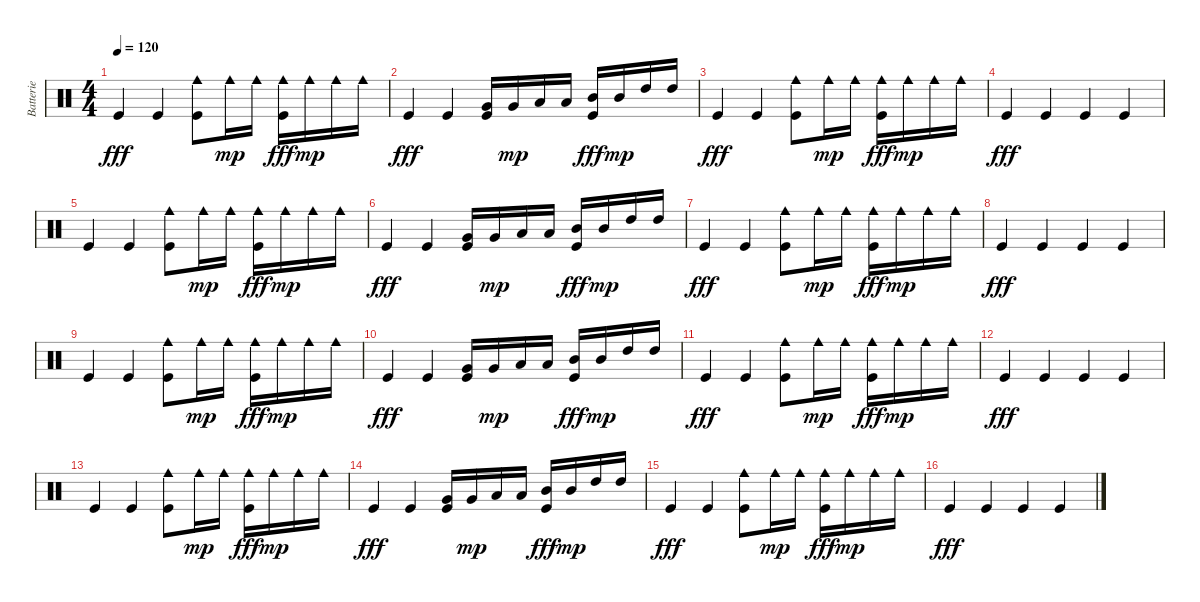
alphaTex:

\track ("Batterie" "Batterie") {instrument percussion}
\staff {score}
\articulation defaults
\ts (4 4)
\tempo 120
\clef neutral
\ks c "Kick (hit)".4{dy fff} "Kick (hit)".4
("Cowbell medium (hit)" "Kick (hit)").8 "Cowbell medium (hit)".16{dy mp} "Cowbell medium (hit)".16 ("Cowbell medium (hit)" "Kick (hit)").16{dy fff} "Cowbell medium (hit)".16{dy mp} "Cowbell medium (hit)".16 "Cowbell medium (hit)".16 |
"Kick (hit)".4{dy fff} "Kick (hit)".4 ("Very Low Tom (hit)" "Kick (hit)").16 "Very Low Tom (hit)".16{dy mp} "Low Tom (hit)".16 "Low Tom (hit)".16 ("Mid Tom (hit)" "Kick (hit)").16{dy fff} "Mid Tom (hit)".16{dy mp} "High Tom (hit)".16 "High Tom (hit)".16 |
"Kick (hit)".4{dy fff} "Kick (hit)".4 ("Cowbell medium (hit)" "Kick (hit)").8 "Cowbell medium (hit)".16{dy mp} "Cowbell medium (hit)".16 ("Cowbell medium (hit)" "Kick (hit)").16{dy fff} "Cowbell medium (hit)".16{dy mp} "Cowbell medium (hit)".16 "Cowbell medium (hit)".16 |
"Kick (hit)".4{dy fff} "Kick (hit)".4 "Kick (hit)".4 "Kick (hit)".4 |
"Kick (hit)".4 "Kick (hit)".4 ("Cowbell medium (hit)" "Kick (hit)").8 "Cowbell medium (hit)".16{dy mp} "Cowbell medium (hit)".16 ("Cowbell medium (hit)" "Kick (hit)").16{dy fff} "Cowbell medium (hit)".16{dy mp} "Cowbell medium (hit)".16 "Cowbell medium (hit)".16 |
"Kick (hit)".4{dy fff} "Kick (hit)".4 ("Very Low Tom (hit)" "Kick (hit)").16 "Very Low Tom (hit)".16{dy mp} "Low Tom (hit)".16 "Low Tom (hit)".16 ("Mid Tom (hit)" "Kick (hit)").16{dy fff} "Mid Tom (hit)".16{dy mp} "High Tom (hit)".16 "High Tom (hit)".16 |
"Kick (hit)".4{dy fff} "Kick (hit)".4 ("Cowbell medium (hit)" "Kick (hit)").8 "Cowbell medium (hit)".16{dy mp} "Cowbell medium (hit)".16 ("Cowbell medium (hit)" "Kick (hit)").16{dy fff} "Cowbell medium (hit)".16{dy mp} "Cowbell medium (hit)".16 "Cowbell medium (hit)".16 |
"Kick (hit)".4{dy fff} "Kick (hit)".4 "Kick (hit)".4 "Kick (hit)".4 |
"Kick (hit)".4 "Kick (hit)".4 ("Cowbell medium (hit)" "Kick (hit)").8 "Cowbell medium (hit)".16{dy mp} "Cowbell medium (hit)".16 ("Cowbell medium (hit)" "Kick (hit)").16{dy fff} "Cowbell medium (hit)".16{dy mp} "Cowbell medium (hit)".16 "Cowbell medium (hit)".16 |
"Kick (hit)".4{dy fff} "Kick (hit)".4 ("Very Low Tom (hit)" "Kick (hit)").16 "Very Low Tom (hit)".16{dy mp} "Low Tom (hit)".16 "Low Tom (hit)".16 ("Mid Tom (hit)" "Kick (hit)").16{dy fff} "Mid Tom (hit)".16{dy mp} "High Tom (hit)".16 "High Tom (hit)".16 |
"Kick (hit)".4{dy fff} "Kick (hit)".4 ("Cowbell medium (hit)" "Kick (hit)").8 "Cowbell medium (hit)".16{dy mp} "Cowbell medium (hit)".16 ("Cowbell medium (hit)" "Kick (hit)").16{dy fff} "Cowbell medium (hit)".16{dy mp} "Cowbell medium (hit)".16 "Cowbell medium (hit)".16 |
"Kick (hit)".4{dy fff} "Kick (hit)".4 "Kick (hit)".4 "Kick (hit)".4 |
"Kick (hit)".4 "Kick (hit)".4 ("Cowbell medium (hit)" "Kick (hit)").8 "Cowbell medium (hit)".16{dy mp} "Cowbell medium (hit)".16 ("Cowbell medium (hit)" "Kick (hit)").16{dy fff} "Cowbell medium (hit)".16{dy mp} "Cowbell medium (hit)".16 "Cowbell medium (hit)".16 |
"Kick (hit)".4{dy fff} "Kick (hit)".4 ("Very Low Tom (hit)" "Kick (hit)").16 "Very Low Tom (hit)".16{dy mp} "Low Tom (hit)".16 "Low Tom (hit)".16 ("Mid Tom (hit)" "Kick (hit)").16{dy fff} "Mid Tom (hit)".16{dy mp} "High Tom (hit)".16 "High Tom (hit)".16 |
"Kick (hit)".4{dy fff} "Kick (hit)".4 ("Cowbell medium (hit)" "Kick (hit)").8 "Cowbell medium (hit)".16{dy mp} "Cowbell medium (hit)".16 ("Cowbell medium (hit)" "Kick (hit)").16{dy fff} "Cowbell medium (hit)".16{dy mp} "Cowbell medium (hit)".16 "Cowbell medium (hit)".16 |
"Kick (hit)".4{dy fff} "Kick (hit)".4 "Kick (hit)".4 "Kick (hit)".4
